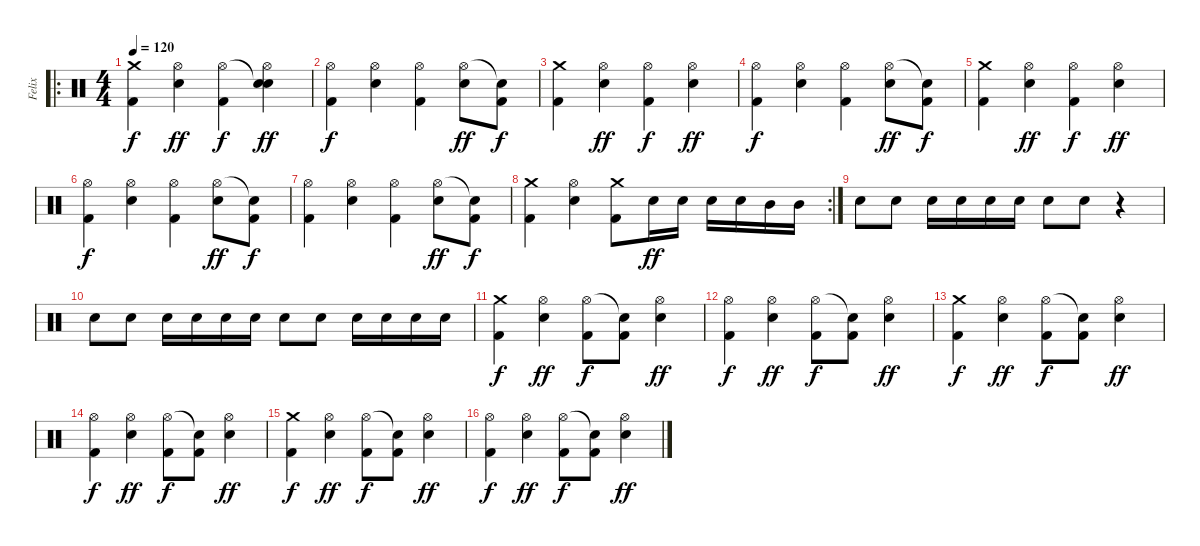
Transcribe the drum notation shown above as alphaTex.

\track ("Felix" "Felix") {instrument percussion}
\staff {score}
\articulation defaults
\ro
\ts (4 4)
\tempo 120
\clef neutral
\ks c
("Crash medium (hit)" "Kick (hit) 2").4{dy f} ("Hi-Hat (open)" "Electric Snare (hit)").4{dy ff} ("Hi-Hat (open)" "Kick (hit) 2").4{dy f} ("Snare (hit)"{t} "Hi-Hat (open)" "Electric Snare (hit)").4{dy ff} |
("Hi-Hat (open)" "Kick (hit) 2").4{dy f} ("Hi-Hat (open)" "Electric Snare (hit)").4 ("Hi-Hat (open)" "Kick (hit) 2").4 ("Hi-Hat (open)" "Electric Snare (hit)").8{dy ff} ("Snare (hit)"{t} "Kick (hit) 2").8{dy f} |
("Crash medium (hit)" "Kick (hit) 2").4 ("Hi-Hat (open)" "Electric Snare (hit)").4{dy ff} ("Hi-Hat (open)" "Kick (hit) 2").4{dy f} ("Hi-Hat (open)" "Electric Snare (hit)").4{dy ff} |
("Hi-Hat (open)" "Kick (hit) 2").4{dy f} ("Hi-Hat (open)" "Electric Snare (hit)").4 ("Hi-Hat (open)" "Kick (hit) 2").4 ("Hi-Hat (open)" "Electric Snare (hit)").8{dy ff} ("Snare (hit)"{t} "Kick (hit) 2").8{dy f} |
("Crash medium (hit)" "Kick (hit) 2").4 ("Hi-Hat (open)" "Electric Snare (hit)").4{dy ff} ("Hi-Hat (open)" "Kick (hit) 2").4{dy f} ("Hi-Hat (open)" "Electric Snare (hit)").4{dy ff} |
("Hi-Hat (open)" "Kick (hit) 2").4{dy f} ("Hi-Hat (open)" "Electric Snare (hit)").4 ("Hi-Hat (open)" "Kick (hit) 2").4 ("Hi-Hat (open)" "Electric Snare (hit)").8{dy ff} ("Snare (hit)"{t} "Kick (hit) 2").8{dy f} |
("Hi-Hat (open)" "Kick (hit) 2").4 ("Hi-Hat (open)" "Electric Snare (hit)").4 ("Hi-Hat (open)" "Kick (hit) 2").4 ("Hi-Hat (open)" "Electric Snare (hit)").8{dy ff} ("Snare (hit)"{t} "Kick (hit) 2").8{dy f} |
\rc 2
("Crash medium (hit)" "Kick (hit) 2").4 ("Hi-Hat (open)" "Electric Snare (hit)").4 ("Crash medium (hit)" "Kick (hit) 2").8 "Electric Snare (hit)".16{dy ff} "Electric Snare (hit)".16 "Electric Snare (hit)".16 "Electric Snare (hit)".16 "Mid Tom (hit)".16 "Mid Tom (hit)".16 |
"Electric Snare (hit)".8 "Electric Snare (hit)".8 "Electric Snare (hit)".16 "Electric Snare (hit)".16 "Electric Snare (hit)".16 "Electric Snare (hit)".16 "Electric Snare (hit)".8 "Electric Snare (hit)".8 r.4 |
"Electric Snare (hit)".8 "Electric Snare (hit)".8 "Electric Snare (hit)".16 "Electric Snare (hit)".16 "Electric Snare (hit)".16 "Electric Snare (hit)".16 "Electric Snare (hit)".8 "Electric Snare (hit)".8 "Electric Snare (hit)".16 "Electric Snare (hit)".16 "Electric Snare (hit)".16 "Electric Snare (hit)".16 |
("Crash medium (hit)" "Kick (hit) 2").4{dy f} ("Hi-Hat (open)" "Electric Snare (hit)").4{dy ff} ("Hi-Hat (open)" "Kick (hit) 2").8{dy f} ("Snare (hit)"{t} "Kick (hit) 2").8 ("Hi-Hat (open)" "Electric Snare (hit)").4{dy ff} |
("Hi-Hat (open)" "Kick (hit) 2").4{dy f} ("Hi-Hat (open)" "Electric Snare (hit)").4{dy ff} ("Hi-Hat (open)" "Kick (hit) 2").8{dy f} ("Snare (hit)"{t} "Kick (hit) 2").8 ("Hi-Hat (open)" "Electric Snare (hit)").4{dy ff} |
("Crash medium (hit)" "Kick (hit) 2").4{dy f} ("Hi-Hat (open)" "Electric Snare (hit)").4{dy ff} ("Hi-Hat (open)" "Kick (hit) 2").8{dy f} ("Snare (hit)"{t} "Kick (hit) 2").8 ("Hi-Hat (open)" "Electric Snare (hit)").4{dy ff} |
("Hi-Hat (open)" "Kick (hit) 2").4{dy f} ("Hi-Hat (open)" "Electric Snare (hit)").4{dy ff} ("Hi-Hat (open)" "Kick (hit) 2").8{dy f} ("Snare (hit)"{t} "Kick (hit) 2").8 ("Hi-Hat (open)" "Electric Snare (hit)").4{dy ff} |
("Crash medium (hit)" "Kick (hit) 2").4{dy f} ("Hi-Hat (open)" "Electric Snare (hit)").4{dy ff} ("Hi-Hat (open)" "Kick (hit) 2").8{dy f} ("Snare (hit)"{t} "Kick (hit) 2").8 ("Hi-Hat (open)" "Electric Snare (hit)").4{dy ff} |
("Hi-Hat (open)" "Kick (hit) 2").4{dy f} ("Hi-Hat (open)" "Electric Snare (hit)").4{dy ff} ("Hi-Hat (open)" "Kick (hit) 2").8{dy f} ("Snare (hit)"{t} "Kick (hit) 2").8 ("Hi-Hat (open)" "Electric Snare (hit)").4{dy ff}
